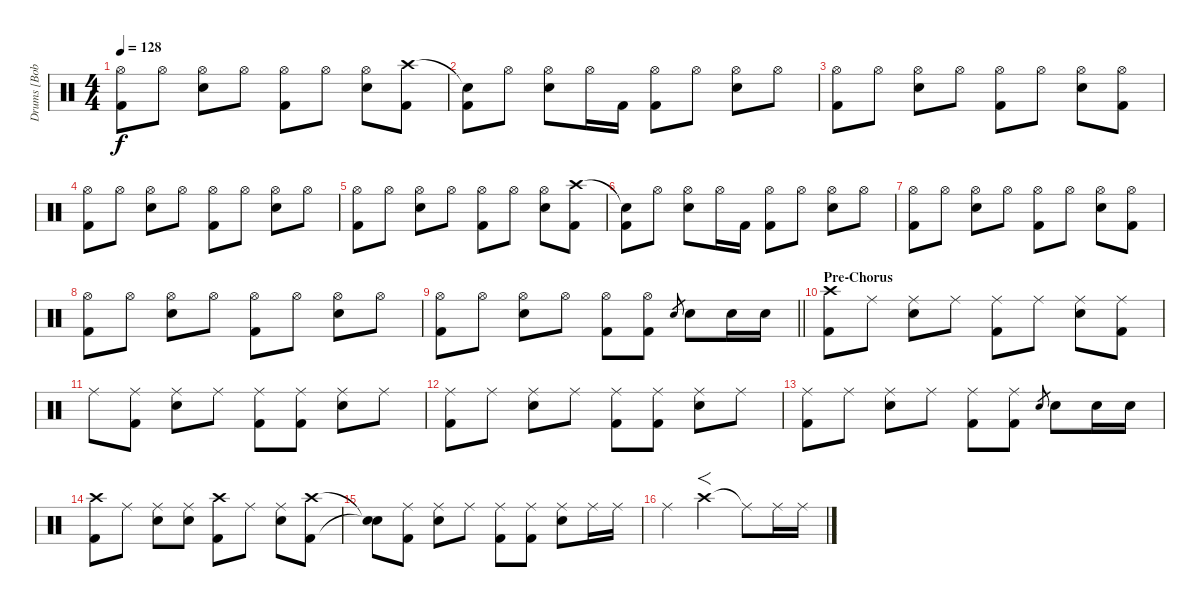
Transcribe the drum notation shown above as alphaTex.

\track ("Drums [Bobby Blotzer]" "Drums [Bob") {instrument percussion}
\staff {score}
\articulation defaults
\ts (4 4)
\tempo 128
\clef neutral
\ks c
("Hi-Hat (open)" "Kick (hit) 2").8{dy f} "Hi-Hat (open)".8 ("Hi-Hat (open)" "Electric Snare (hit)").8 "Hi-Hat (open)".8 ("Hi-Hat (open)" "Kick (hit) 2").8 "Hi-Hat (open)".8 ("Hi-Hat (open)" "Electric Snare (hit)").8 ("Crash high (hit)" "Kick (hit) 2").8 |
("Snare (hit)"{t} "Kick (hit) 2").8 "Hi-Hat (open)".8 ("Hi-Hat (open)" "Electric Snare (hit)").8 "Hi-Hat (open)".16 "Kick (hit) 2".16 ("Hi-Hat (open)" "Kick (hit) 2").8 "Hi-Hat (open)".8 ("Hi-Hat (open)" "Electric Snare (hit)").8 "Hi-Hat (open)".8 |
("Hi-Hat (open)" "Kick (hit) 2").8 "Hi-Hat (open)".8 ("Hi-Hat (open)" "Electric Snare (hit)").8 "Hi-Hat (open)".8 ("Hi-Hat (open)" "Kick (hit) 2").8 "Hi-Hat (open)".8 ("Hi-Hat (open)" "Electric Snare (hit)").8 ("Hi-Hat (open)" "Kick (hit) 2").8 |
("Hi-Hat (open)" "Kick (hit) 2").8 "Hi-Hat (open)".8 ("Hi-Hat (open)" "Electric Snare (hit)").8 "Hi-Hat (open)".8 ("Hi-Hat (open)" "Kick (hit) 2").8 "Hi-Hat (open)".8 ("Hi-Hat (open)" "Electric Snare (hit)").8 "Hi-Hat (open)".8 |
("Hi-Hat (open)" "Kick (hit) 2").8 "Hi-Hat (open)".8 ("Hi-Hat (open)" "Electric Snare (hit)").8 "Hi-Hat (open)".8 ("Hi-Hat (open)" "Kick (hit) 2").8 "Hi-Hat (open)".8 ("Hi-Hat (open)" "Electric Snare (hit)").8 ("Crash high (hit)" "Kick (hit) 2").8 |
("Snare (hit)"{t} "Kick (hit) 2").8 "Hi-Hat (open)".8 ("Hi-Hat (open)" "Electric Snare (hit)").8 "Hi-Hat (open)".16 "Kick (hit) 2".16 ("Hi-Hat (open)" "Kick (hit) 2").8 "Hi-Hat (open)".8 ("Hi-Hat (open)" "Electric Snare (hit)").8 "Hi-Hat (open)".8 |
("Hi-Hat (open)" "Kick (hit) 2").8 "Hi-Hat (open)".8 ("Hi-Hat (open)" "Electric Snare (hit)").8 "Hi-Hat (open)".8 ("Hi-Hat (open)" "Kick (hit) 2").8 "Hi-Hat (open)".8 ("Hi-Hat (open)" "Electric Snare (hit)").8 ("Hi-Hat (open)" "Kick (hit) 2").8 |
("Hi-Hat (open)" "Kick (hit) 2").8 "Hi-Hat (open)".8 ("Hi-Hat (open)" "Electric Snare (hit)").8 "Hi-Hat (open)".8 ("Hi-Hat (open)" "Kick (hit) 2").8 "Hi-Hat (open)".8 ("Hi-Hat (open)" "Electric Snare (hit)").8 "Hi-Hat (open)".8 |
\barLineRight lightlight
("Hi-Hat (open)" "Kick (hit) 2").8 "Hi-Hat (open)".8 ("Hi-Hat (open)" "Electric Snare (hit)").8 "Hi-Hat (open)".8 ("Hi-Hat (open)" "Kick (hit) 2").8 ("Hi-Hat (open)" "Kick (hit) 2").8 "Electric Snare (hit)".8{gr} "Electric Snare (hit)".8 "Electric Snare (hit)".16 "Electric Snare (hit)".16 |
\section ("" "Pre-Chorus")
("Crash high (hit)" "Kick (hit) 2").8 "Ride (middle)".8 ("Ride (middle)" "Electric Snare (hit)").8 "Ride (middle)".8 ("Ride (middle)" "Kick (hit) 2").8 "Ride (middle)".8 ("Ride (middle)" "Electric Snare (hit)").8 ("Ride (middle)" "Kick (hit) 2").8 |
"Ride (middle)".8 ("Ride (middle)" "Kick (hit) 2").8 ("Ride (middle)" "Electric Snare (hit)").8 "Ride (middle)".8 ("Ride (middle)" "Kick (hit) 2").8 ("Ride (middle)" "Kick (hit) 2").8 ("Ride (middle)" "Electric Snare (hit)").8 "Ride (middle)".8 |
("Ride (middle)" "Kick (hit) 2").8 "Ride (middle)".8 ("Ride (middle)" "Electric Snare (hit)").8 "Ride (middle)".8 ("Ride (middle)" "Kick (hit) 2").8 ("Ride (middle)" "Kick (hit) 2").8 ("Ride (middle)" "Electric Snare (hit)").8 "Ride (middle)".8 |
("Ride (middle)" "Kick (hit) 2").8 "Ride (middle)".8 ("Ride (middle)" "Electric Snare (hit)").8 "Ride (middle)".8 ("Ride (middle)" "Kick (hit) 2").8 ("Ride (middle)" "Kick (hit) 2").8 "Electric Snare (hit)".8{gr} "Electric Snare (hit)".8 "Electric Snare (hit)".16 "Electric Snare (hit)".16 |
("Crash high (hit)" "Kick (hit) 2").8 "Ride (middle)".8 ("Ride (middle)" "Electric Snare (hit)").8 ("Ride (middle)" "Electric Snare (hit)").8 ("Crash high (hit)" "Kick (hit) 2").8 "Ride (middle)".8 ("Ride (middle)" "Electric Snare (hit)").8 ("Crash high (hit)" "Kick (hit) 2").8 |
("Snare (hit)"{t} "Snare (hit)"{t}).8 ("Ride (middle)" "Kick (hit) 2").8 ("Ride (middle)" "Electric Snare (hit)").8 "Ride (middle)".8 ("Ride (middle)" "Kick (hit) 2").8 ("Ride (middle)" "Kick (hit) 2").8 ("Ride (middle)" "Electric Snare (hit)").8 "Ride (middle)".16 "Ride (middle)".16 |
"Ride (middle)".4 "Crash high (hit)".2{f} "Ride (middle)"{t}.8 "Ride (middle)".16 "Ride (middle)".16
